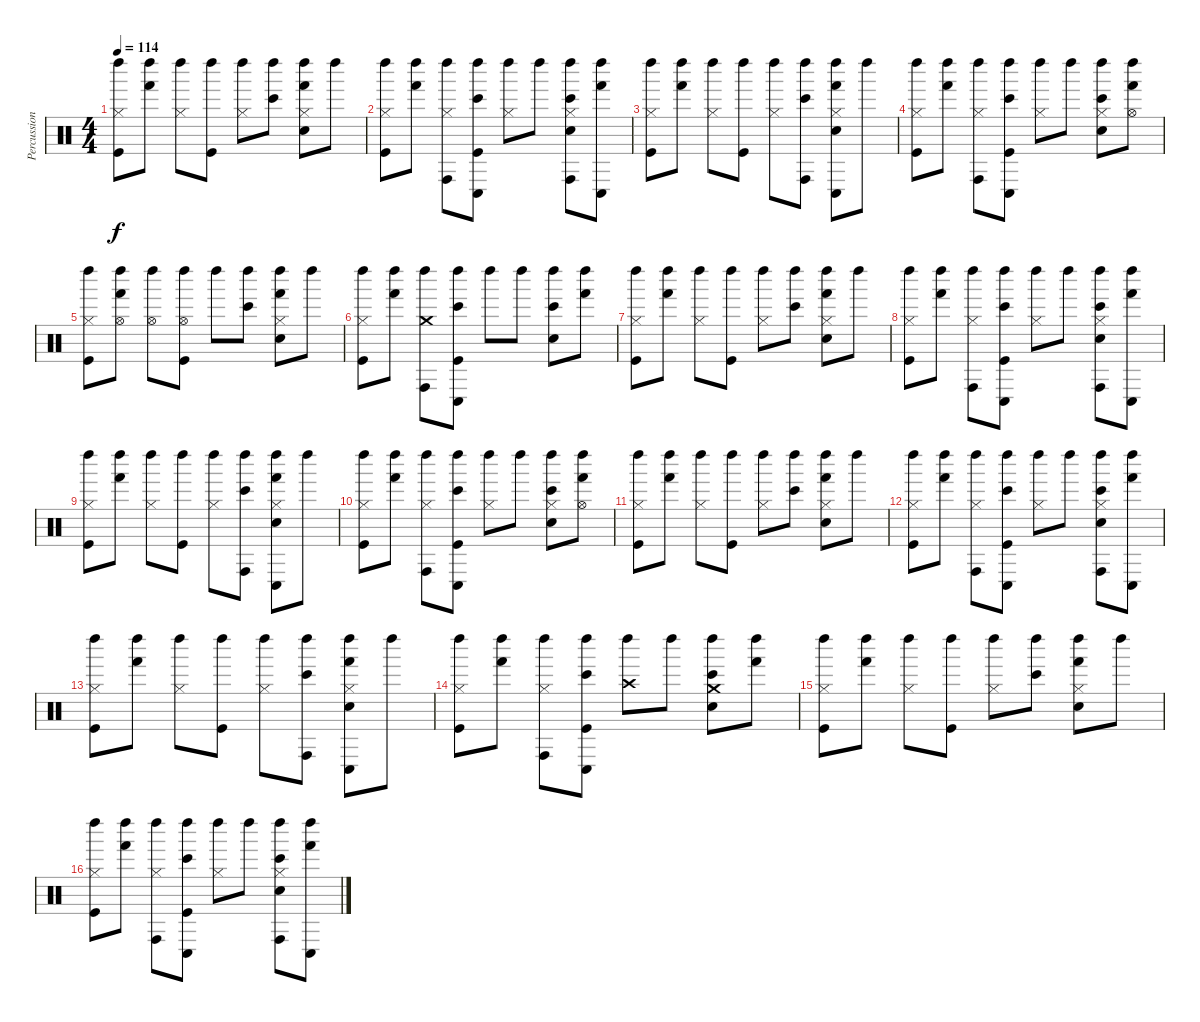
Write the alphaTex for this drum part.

\track ("Percussion" "Percussion") {instrument percussion}
\staff {score}
\articulation defaults
\ts (4 4)
\tempo 114
\clef neutral
\ks c
("Left Maraca (hit)" "Hi-Hat (closed)" "Kick (hit)").8{dy f} ("Left Maraca (hit)" "Hand (hit)").8 ("Left Maraca (hit)" "Hi-Hat (closed)").8 ("Left Maraca (hit)" "Kick (hit)").8 ("Left Maraca (hit)" "Hi-Hat (closed)").8 ("Left Maraca (hit)" "Bongo High (hit)").8 ("Left Maraca (hit)" "Hand (hit)" "Hi-Hat (closed)" "Snare (hit) 2").8 "Left Maraca (hit)".8 |
("Left Maraca (hit)" "Hi-Hat (closed)" "Kick (hit)").8 ("Left Maraca (hit)" "Hand (hit)").8 ("Left Maraca (hit)" "Conga high (hit)" "Hi-Hat (closed)").8 ("Left Maraca (hit)" "Conga low (hit)" "Bongo High (hit)" "Kick (hit)").8 ("Left Maraca (hit)" "Hi-Hat (closed)").8 "Left Maraca (hit)".8 ("Left Maraca (hit)" "Conga high (hit)" "Bongo High (hit)" "Hi-Hat (closed)" "Snare (hit) 2").8 ("Left Maraca (hit)" "Conga low (hit)" "Hand (hit)").8 |
("Left Maraca (hit)" "Hi-Hat (closed)" "Kick (hit)").8 ("Left Maraca (hit)" "Hand (hit)").8 ("Left Maraca (hit)" "Hi-Hat (closed)").8 ("Left Maraca (hit)" "Kick (hit)").8 ("Left Maraca (hit)" "Hi-Hat (closed)").8 ("Left Maraca (hit)" "Conga high (hit)" "Bongo High (hit)").8 ("Left Maraca (hit)" "Conga low (hit)" "Hand (hit)" "Hi-Hat (closed)" "Snare (hit) 2").8 "Left Maraca (hit)".8 |
("Left Maraca (hit)" "Hi-Hat (closed)" "Kick (hit)").8 ("Left Maraca (hit)" "Hand (hit)").8 ("Left Maraca (hit)" "Conga high (hit)" "Hi-Hat (closed)").8 ("Left Maraca (hit)" "Conga low (hit)" "Bongo High (hit)" "Kick (hit)").8 ("Left Maraca (hit)" "Hi-Hat (closed)").8 "Left Maraca (hit)".8 ("Left Maraca (hit)" "Bongo High (hit)" "Hi-Hat (closed)" "Snare (hit) 2").8 ("Left Maraca (hit)" "Hand (hit)" "Hi-Hat (open)").8 |
("Left Maraca (hit)" "Hi-Hat (closed)" "Kick (hit)").8 ("Left Maraca (hit)" "Hand (hit)" "Hi-Hat (open)").8 ("Left Maraca (hit)" "Hi-Hat (open)").8 ("Left Maraca (hit)" "Hi-Hat (open)" "Kick (hit)").8 "Left Maraca (hit)".8 ("Left Maraca (hit)" "Bongo High (hit)").8 ("Left Maraca (hit)" "Hand (hit)" "Hi-Hat (closed)" "Snare (hit) 2").8 "Left Maraca (hit)".8 |
("Left Maraca (hit)" "Hi-Hat (closed)" "Kick (hit)").8 ("Left Maraca (hit)" "Hand (hit)").8 ("Left Maraca (hit)" "Conga high (hit)" "Crash medium (hit)").8 ("Left Maraca (hit)" "Conga low (hit)" "Bongo High (hit)" "Kick (hit)").8 "Left Maraca (hit)".8 "Left Maraca (hit)".8 ("Left Maraca (hit)" "Bongo High (hit)" "Snare (hit) 2").8 ("Left Maraca (hit)" "Hand (hit)").8 |
("Left Maraca (hit)" "Hi-Hat (closed)" "Kick (hit)").8 ("Left Maraca (hit)" "Hand (hit)").8 ("Left Maraca (hit)" "Hi-Hat (closed)").8 ("Left Maraca (hit)" "Kick (hit)").8 ("Left Maraca (hit)" "Hi-Hat (closed)").8 ("Left Maraca (hit)" "Bongo High (hit)").8 ("Left Maraca (hit)" "Hand (hit)" "Hi-Hat (closed)" "Snare (hit) 2").8 "Left Maraca (hit)".8 |
("Left Maraca (hit)" "Hi-Hat (closed)" "Kick (hit)").8 ("Left Maraca (hit)" "Hand (hit)").8 ("Left Maraca (hit)" "Conga high (hit)" "Hi-Hat (closed)").8 ("Left Maraca (hit)" "Conga low (hit)" "Bongo High (hit)" "Kick (hit)").8 ("Left Maraca (hit)" "Hi-Hat (closed)").8 "Left Maraca (hit)".8 ("Left Maraca (hit)" "Conga high (hit)" "Bongo High (hit)" "Hi-Hat (closed)" "Snare (hit) 2").8 ("Left Maraca (hit)" "Conga low (hit)" "Hand (hit)").8 |
("Left Maraca (hit)" "Hi-Hat (closed)" "Kick (hit)").8 ("Left Maraca (hit)" "Hand (hit)").8 ("Left Maraca (hit)" "Hi-Hat (closed)").8 ("Left Maraca (hit)" "Kick (hit)").8 ("Left Maraca (hit)" "Hi-Hat (closed)").8 ("Left Maraca (hit)" "Conga high (hit)" "Bongo High (hit)").8 ("Left Maraca (hit)" "Conga low (hit)" "Hand (hit)" "Hi-Hat (closed)" "Snare (hit) 2").8 "Left Maraca (hit)".8 |
("Left Maraca (hit)" "Hi-Hat (closed)" "Kick (hit)").8 ("Left Maraca (hit)" "Hand (hit)").8 ("Left Maraca (hit)" "Conga high (hit)" "Hi-Hat (closed)").8 ("Left Maraca (hit)" "Conga low (hit)" "Bongo High (hit)" "Kick (hit)").8 ("Left Maraca (hit)" "Hi-Hat (closed)").8 "Left Maraca (hit)".8 ("Left Maraca (hit)" "Bongo High (hit)" "Hi-Hat (closed)" "Snare (hit) 2").8 ("Left Maraca (hit)" "Hand (hit)" "Hi-Hat (open)").8 |
("Left Maraca (hit)" "Hi-Hat (closed)" "Kick (hit)").8 ("Left Maraca (hit)" "Hand (hit)").8 ("Left Maraca (hit)" "Hi-Hat (closed)").8 ("Left Maraca (hit)" "Kick (hit)").8 ("Left Maraca (hit)" "Hi-Hat (closed)").8 ("Left Maraca (hit)" "Bongo High (hit)").8 ("Left Maraca (hit)" "Hand (hit)" "Hi-Hat (closed)" "Snare (hit) 2").8 "Left Maraca (hit)".8 |
("Left Maraca (hit)" "Hi-Hat (closed)" "Kick (hit)").8 ("Left Maraca (hit)" "Hand (hit)").8 ("Left Maraca (hit)" "Conga high (hit)" "Hi-Hat (closed)").8 ("Left Maraca (hit)" "Conga low (hit)" "Bongo High (hit)" "Kick (hit)").8 ("Left Maraca (hit)" "Hi-Hat (closed)").8 "Left Maraca (hit)".8 ("Left Maraca (hit)" "Conga high (hit)" "Bongo High (hit)" "Hi-Hat (closed)" "Snare (hit) 2").8 ("Left Maraca (hit)" "Conga low (hit)" "Hand (hit)").8 |
("Left Maraca (hit)" "Hi-Hat (closed)" "Kick (hit)").8 ("Left Maraca (hit)" "Hand (hit)").8 ("Left Maraca (hit)" "Hi-Hat (closed)").8 ("Left Maraca (hit)" "Kick (hit)").8 ("Left Maraca (hit)" "Hi-Hat (closed)").8 ("Left Maraca (hit)" "Conga high (hit)" "Bongo High (hit)").8 ("Left Maraca (hit)" "Conga low (hit)" "Hand (hit)" "Hi-Hat (closed)" "Snare (hit) 2").8 "Left Maraca (hit)".8 |
("Left Maraca (hit)" "Hi-Hat (closed)" "Kick (hit)").8 ("Left Maraca (hit)" "Hand (hit)").8 ("Left Maraca (hit)" "Conga high (hit)" "Hi-Hat (closed)").8 ("Left Maraca (hit)" "Conga low (hit)" "Bongo High (hit)" "Kick (hit)").8 ("Left Maraca (hit)" "Crash high (hit)").8 "Left Maraca (hit)".8 ("Left Maraca (hit)" "Bongo High (hit)" "Crash medium (hit)" "Snare (hit) 2").8 ("Left Maraca (hit)" "Hand (hit)").8 |
("Left Maraca (hit)" "Hi-Hat (closed)" "Kick (hit)").8 ("Left Maraca (hit)" "Hand (hit)").8 ("Left Maraca (hit)" "Hi-Hat (closed)").8 ("Left Maraca (hit)" "Kick (hit)").8 ("Left Maraca (hit)" "Hi-Hat (closed)").8 ("Left Maraca (hit)" "Bongo High (hit)").8 ("Left Maraca (hit)" "Hand (hit)" "Hi-Hat (closed)" "Snare (hit) 2").8 "Left Maraca (hit)".8 |
("Left Maraca (hit)" "Hi-Hat (closed)" "Kick (hit)").8 ("Left Maraca (hit)" "Hand (hit)").8 ("Left Maraca (hit)" "Conga high (hit)" "Hi-Hat (closed)").8 ("Left Maraca (hit)" "Conga low (hit)" "Bongo High (hit)" "Kick (hit)").8 ("Left Maraca (hit)" "Hi-Hat (closed)").8 "Left Maraca (hit)".8 ("Left Maraca (hit)" "Conga high (hit)" "Bongo High (hit)" "Hi-Hat (closed)" "Snare (hit) 2").8 ("Left Maraca (hit)" "Conga low (hit)" "Hand (hit)").8
